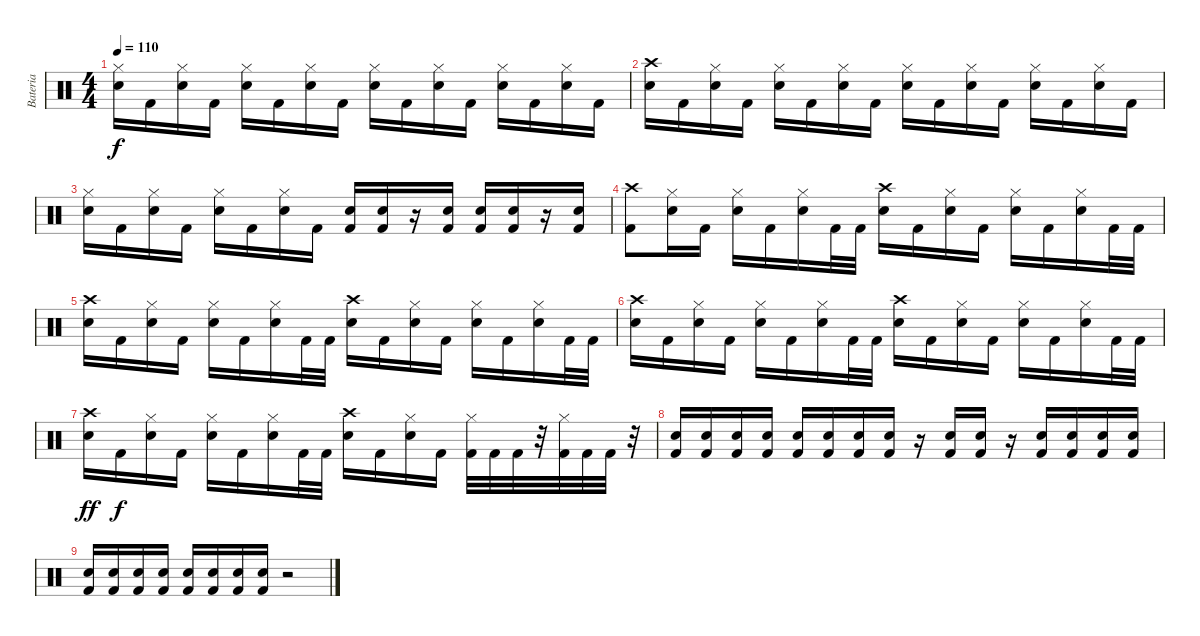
\track ("Bateria" "Bateria") {instrument percussion}
\staff {score}
\articulation defaults
\ts (4 4)
\tempo 110
\clef neutral
\ks c
("Hi-Hat (closed)" "Electric Snare (hit)").16{dy f} "Kick (hit) 2".16 ("Hi-Hat (closed)" "Electric Snare (hit)").16 "Kick (hit) 2".16 ("Hi-Hat (closed)" "Electric Snare (hit)").16 "Kick (hit) 2".16 ("Hi-Hat (closed)" "Electric Snare (hit)").16 "Kick (hit) 2".16 ("Hi-Hat (closed)" "Electric Snare (hit)").16 "Kick (hit) 2".16 ("Hi-Hat (closed)" "Electric Snare (hit)").16 "Kick (hit) 2".16 ("Hi-Hat (closed)" "Electric Snare (hit)").16 "Kick (hit) 2".16 ("Hi-Hat (closed)" "Electric Snare (hit)").16 "Kick (hit) 2".16 |
("Crash high (hit)" "Electric Snare (hit)").16 "Kick (hit) 2".16 ("Hi-Hat (closed)" "Electric Snare (hit)").16 "Kick (hit) 2".16 ("Hi-Hat (closed)" "Electric Snare (hit)").16 "Kick (hit) 2".16 ("Hi-Hat (closed)" "Electric Snare (hit)").16 "Kick (hit) 2".16 ("Hi-Hat (closed)" "Electric Snare (hit)").16 "Kick (hit) 2".16 ("Hi-Hat (closed)" "Electric Snare (hit)").16 "Kick (hit) 2".16 ("Hi-Hat (closed)" "Electric Snare (hit)").16 "Kick (hit) 2".16 ("Hi-Hat (closed)" "Electric Snare (hit)").16 "Kick (hit) 2".16 |
("Hi-Hat (closed)" "Electric Snare (hit)").16 "Kick (hit) 2".16 ("Hi-Hat (closed)" "Electric Snare (hit)").16 "Kick (hit) 2".16 ("Hi-Hat (closed)" "Electric Snare (hit)").16 "Kick (hit) 2".16 ("Hi-Hat (closed)" "Electric Snare (hit)").16 "Kick (hit) 2".16 ("Electric Snare (hit)" "Kick (hit) 2").16 ("Electric Snare (hit)" "Kick (hit) 2").16 r.16 ("Electric Snare (hit)" "Kick (hit) 2").16 ("Electric Snare (hit)" "Kick (hit) 2").16 ("Electric Snare (hit)" "Kick (hit) 2").16 r.16 ("Electric Snare (hit)" "Kick (hit) 2").16 |
("Crash high (hit)" "Kick (hit) 2").8 ("Hi-Hat (closed)" "Electric Snare (hit)").16 "Kick (hit) 2".16 ("Hi-Hat (closed)" "Electric Snare (hit)").16 "Kick (hit) 2".16 ("Hi-Hat (closed)" "Electric Snare (hit)").16 "Kick (hit) 2".32 "Kick (hit) 2".32 ("Crash high (hit)" "Electric Snare (hit)").16 "Kick (hit) 2".16 ("Hi-Hat (closed)" "Electric Snare (hit)").16 "Kick (hit) 2".16 ("Hi-Hat (closed)" "Electric Snare (hit)").16 "Kick (hit) 2".16 ("Hi-Hat (closed)" "Electric Snare (hit)").16 "Kick (hit) 2".32 "Kick (hit) 2".32 |
("Crash high (hit)" "Electric Snare (hit)").16 "Kick (hit) 2".16 ("Hi-Hat (closed)" "Electric Snare (hit)").16 "Kick (hit) 2".16 ("Hi-Hat (closed)" "Electric Snare (hit)").16 "Kick (hit) 2".16 ("Hi-Hat (closed)" "Electric Snare (hit)").16 "Kick (hit) 2".32 "Kick (hit) 2".32 ("Crash high (hit)" "Electric Snare (hit)").16 "Kick (hit) 2".16 ("Hi-Hat (closed)" "Electric Snare (hit)").16 "Kick (hit) 2".16 ("Hi-Hat (closed)" "Electric Snare (hit)").16 "Kick (hit) 2".16 ("Hi-Hat (closed)" "Electric Snare (hit)").16 "Kick (hit) 2".32 "Kick (hit) 2".32 |
("Crash high (hit)" "Electric Snare (hit)").16 "Kick (hit) 2".16 ("Hi-Hat (closed)" "Electric Snare (hit)").16 "Kick (hit) 2".16 ("Hi-Hat (closed)" "Electric Snare (hit)").16 "Kick (hit) 2".16 ("Hi-Hat (closed)" "Electric Snare (hit)").16 "Kick (hit) 2".32 "Kick (hit) 2".32 ("Crash high (hit)" "Electric Snare (hit)").16 "Kick (hit) 2".16 ("Hi-Hat (closed)" "Electric Snare (hit)").16 "Kick (hit) 2".16 ("Hi-Hat (closed)" "Electric Snare (hit)").16 "Kick (hit) 2".16 ("Hi-Hat (closed)" "Electric Snare (hit)").16 "Kick (hit) 2".32 "Kick (hit) 2".32 |
("Crash high (hit)" "Electric Snare (hit)").16{dy ff} "Kick (hit) 2".16{dy f} ("Hi-Hat (closed)" "Electric Snare (hit)").16 "Kick (hit) 2".16 ("Hi-Hat (closed)" "Electric Snare (hit)").16 "Kick (hit) 2".16 ("Hi-Hat (closed)" "Electric Snare (hit)").16 "Kick (hit) 2".32 "Kick (hit) 2".32 ("Crash high (hit)" "Electric Snare (hit)").16 "Kick (hit) 2".16 ("Hi-Hat (closed)" "Electric Snare (hit)").16 "Kick (hit) 2".16 ("Hi-Hat (closed)" "Kick (hit) 2").32 "Kick (hit) 2".32 "Kick (hit) 2".32 r.32 ("Hi-Hat (closed)" "Kick (hit) 2").32 "Kick (hit) 2".32 "Kick (hit) 2".32 r.32 |
("Electric Snare (hit)" "Kick (hit) 2").16 ("Electric Snare (hit)" "Kick (hit) 2").16 ("Electric Snare (hit)" "Kick (hit) 2").16 ("Electric Snare (hit)" "Kick (hit) 2").16 ("Electric Snare (hit)" "Kick (hit) 2").16 ("Electric Snare (hit)" "Kick (hit) 2").16 ("Electric Snare (hit)" "Kick (hit) 2").16 ("Electric Snare (hit)" "Kick (hit) 2").16 r.16 ("Electric Snare (hit)" "Kick (hit) 2").16 ("Electric Snare (hit)" "Kick (hit) 2").16 r.16 ("Electric Snare (hit)" "Kick (hit) 2").16 ("Electric Snare (hit)" "Kick (hit) 2").16 ("Electric Snare (hit)" "Kick (hit) 2").16 ("Electric Snare (hit)" "Kick (hit) 2").16 |
("Electric Snare (hit)" "Kick (hit) 2").16 ("Electric Snare (hit)" "Kick (hit) 2").16 ("Electric Snare (hit)" "Kick (hit) 2").16 ("Electric Snare (hit)" "Kick (hit) 2").16 ("Electric Snare (hit)" "Kick (hit) 2").16 ("Electric Snare (hit)" "Kick (hit) 2").16 ("Electric Snare (hit)" "Kick (hit) 2").16 ("Electric Snare (hit)" "Kick (hit) 2").16 r.2
